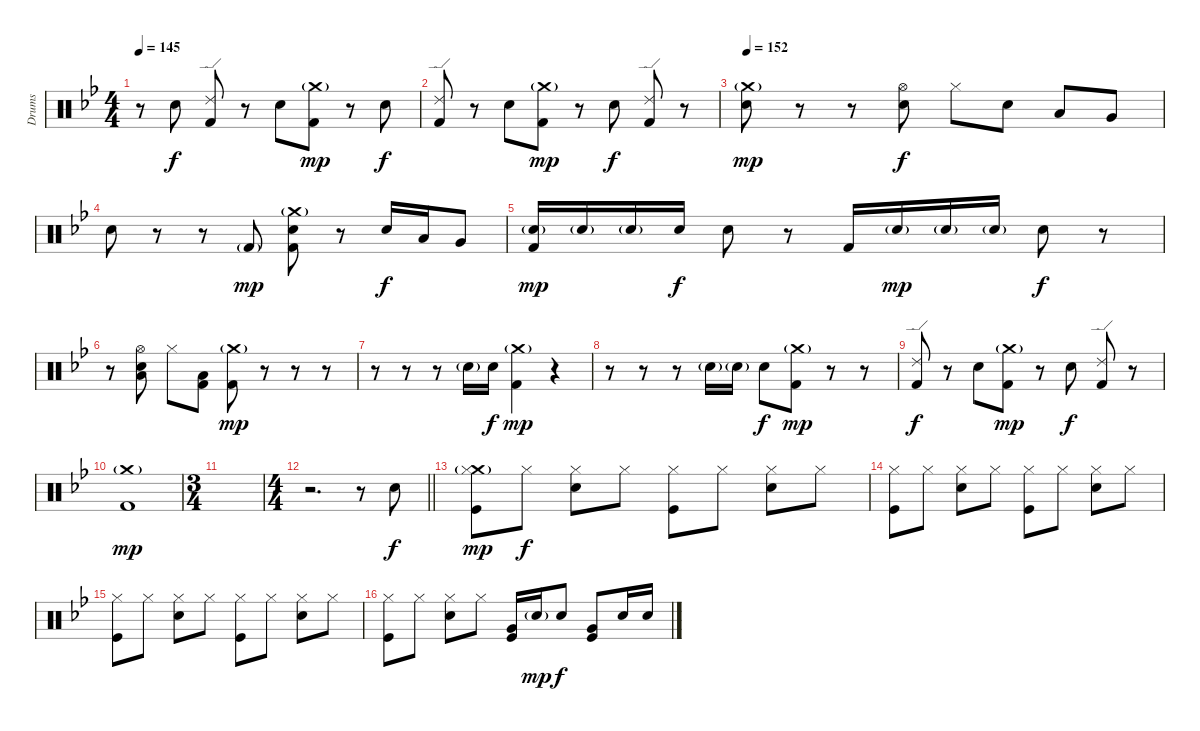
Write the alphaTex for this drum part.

\track ("Drums" "Drums") {instrument percussion}
\staff {score}
\articulation defaults
\ts (4 4)
\tempo 145
\clef neutral
\ks bb
r.8{dy mp} "Electric Snare (hit)".8{dy f} ("Ride (edge) 2" "Kick (hit) 2").8 r.8 "Electric Snare (hit)".8 ("Crash medium (hit)"{g} "Kick (hit) 2").8{dy mp} r.8 "Electric Snare (hit)".8{dy f} |
("Ride (edge) 2" "Kick (hit) 2").8 r.8 "Electric Snare (hit)".8 ("Crash medium (hit)"{g} "Kick (hit) 2").8{dy mp} r.8 "Electric Snare (hit)".8{dy f} ("Ride (edge) 2" "Kick (hit) 2").8 r.8 |
\tempo 152
("Crash medium (hit)"{g} "Electric Snare (hit)").8{dy mp} r.8 r.8 ("Hi-Hat (open)" "Electric Snare (hit)").8{dy f} "Hi-Hat (closed)".8 "Electric Snare (hit)".8 "Low Tom (hit)".8 "Very Low Tom (hit)".8 |
"Electric Snare (hit)".8 r.8 r.8 "Kick (hit) 2"{g}.8{dy mp} ("Crash medium (hit)"{g} "Kick (hit) 2" "Electric Snare (hit)").8 r.8 "Electric Snare (hit)".16{dy f} "Low Tom (hit)".16 "Very Low Tom (hit)".8 |
("Electric Snare (hit)"{g} "Kick (hit) 2").16{dy mp} "Electric Snare (hit)"{g}.16 "Electric Snare (hit)"{g}.16 "Electric Snare (hit)".16{dy f} "Electric Snare (hit)".8 r.8 "Kick (hit) 2".16 "Electric Snare (hit)"{g}.16{dy mp} "Electric Snare (hit)"{g}.16 "Electric Snare (hit)"{g}.16 "Electric Snare (hit)".8{dy f} r.8 |
r.8 ("Low Tom (hit)" "Hi-Hat (open)" "Electric Snare (hit)").8 "Hi-Hat (closed)".8 ("Low Tom (hit)" "Kick (hit) 2").8 ("Crash medium (hit)"{g} "Kick (hit) 2").8{dy mp} r.8 r.8 r.8 |
r.8 r.8 r.8 "Electric Snare (hit)"{g}.16 "Electric Snare (hit)".16{dy f} ("Crash medium (hit)"{g} "Kick (hit) 2").4{dy mp} r.4 |
r.8 r.8 r.8 "Electric Snare (hit)"{g}.16 "Electric Snare (hit)"{g}.16 "Electric Snare (hit)".8{dy f} ("Crash medium (hit)"{g} "Kick (hit) 2").8{dy mp} r.8 r.8 |
("Ride (edge) 2" "Kick (hit) 2").8{dy f} r.8 "Electric Snare (hit)".8 ("Crash medium (hit)"{g} "Kick (hit) 2").8{dy mp} r.8 "Electric Snare (hit)".8{dy f} ("Ride (edge) 2" "Kick (hit) 2").8 r.8 |
("Crash medium (hit)"{g} "Kick (hit) 2").1{dy mp} |
\ts (3 4)
|
\ts (4 4)
\barLineRight lightlight
r.2{d} r.8 "Electric Snare (hit)".8{dy f} |
("Crash medium (hit)"{g} "Hi-Hat (closed)" "Kick (hit)").8{dy mp} "Hi-Hat (closed)".8{dy f} ("Hi-Hat (closed)" "Electric Snare (hit)").8 "Hi-Hat (closed)".8 ("Hi-Hat (closed)" "Kick (hit)").8 "Hi-Hat (closed)".8 ("Hi-Hat (closed)" "Electric Snare (hit)").8 "Hi-Hat (closed)".8 |
("Hi-Hat (closed)" "Kick (hit)").8 "Hi-Hat (closed)".8 ("Hi-Hat (closed)" "Electric Snare (hit)").8 "Hi-Hat (closed)".8 ("Hi-Hat (closed)" "Kick (hit)").8 "Hi-Hat (closed)".8 ("Hi-Hat (closed)" "Electric Snare (hit)").8 "Hi-Hat (closed)".8 |
("Hi-Hat (closed)" "Kick (hit)").8 "Hi-Hat (closed)".8 ("Hi-Hat (closed)" "Electric Snare (hit)").8 "Hi-Hat (closed)".8 ("Hi-Hat (closed)" "Kick (hit)").8 "Hi-Hat (closed)".8 ("Hi-Hat (closed)" "Electric Snare (hit)").8 "Hi-Hat (closed)".8 |
("Hi-Hat (closed)" "Kick (hit)").8 "Hi-Hat (closed)".8 ("Hi-Hat (closed)" "Electric Snare (hit)").8 "Hi-Hat (closed)".8 ("Very Low Tom (hit)" "Kick (hit)").16 "Electric Snare (hit)"{g}.16{dy mp} "Electric Snare (hit)".8{dy f} ("Very Low Tom (hit)" "Kick (hit)").8 "Electric Snare (hit)".16 "Electric Snare (hit)".16
